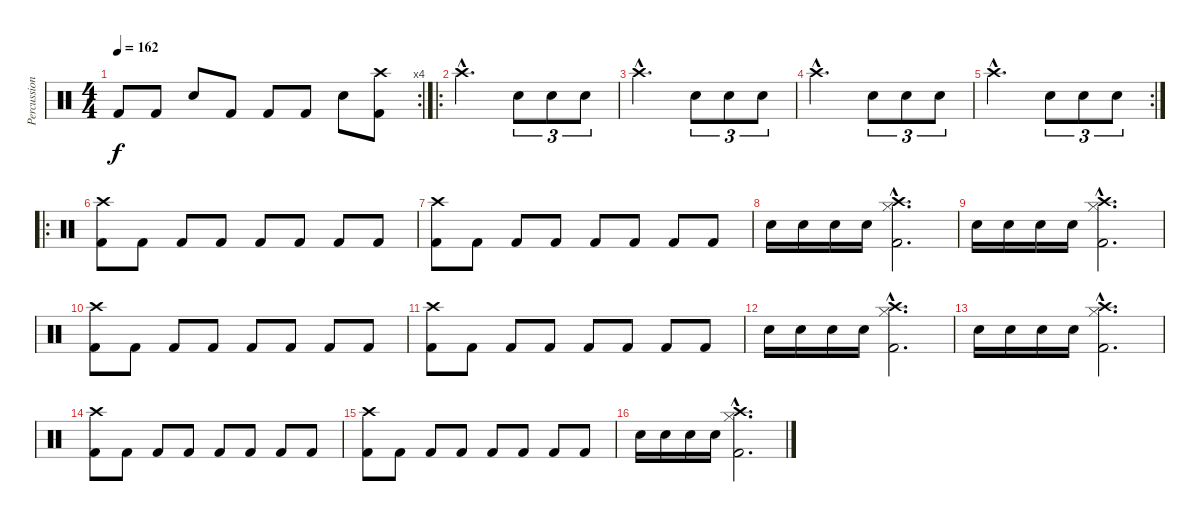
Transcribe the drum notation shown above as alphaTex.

\track ("Percussion" "Percussion") {instrument percussion}
\staff {score}
\articulation defaults
\rc 4
\ts (4 4)
\tempo 162
\clef neutral
\ks c "Kick (hit) 2".8{dy f} "Kick (hit) 2".8 "Snare (hit) 2".8 "Kick (hit) 2".8 "Kick (hit) 2".8 "Kick (hit) 2".8 "Snare (hit) 2".8
("Crash high (hit)" "Kick (hit) 2").8 |
\ro "Crash high (hit)"{hac}.2{d} "Snare (hit) 2".8{tu (3 2)} "Snare (hit) 2".8{tu (3 2)} "Snare (hit) 2".8{tu (3 2)}
|
"Crash high (hit)"{hac}.2{d} "Snare (hit) 2".8{tu (3 2)} "Snare (hit) 2".8{tu (3 2)} "Snare (hit) 2".8{tu (3 2)} |
"Crash high (hit)"{hac}.2{d} "Snare (hit) 2".8{tu (3 2)} "Snare (hit) 2".8{tu (3 2)} "Snare (hit) 2".8{tu (3 2)} |
\rc 2 "Crash high (hit)"{hac}.2{d} "Snare (hit) 2".8{tu (3 2)} "Snare (hit) 2".8{tu (3 2)} "Snare (hit) 2".8{tu (3 2)}
|
\ro
("Crash high (hit)" "Kick (hit) 2").8 "Kick (hit) 2".8 "Kick (hit) 2".8 "Kick (hit) 2".8 "Kick (hit) 2".8 "Kick (hit) 2".8 "Kick (hit) 2".8 "Kick (hit) 2".8 |
("Crash high (hit)" "Kick (hit) 2").8 "Kick (hit) 2".8 "Kick (hit) 2".8 "Kick (hit) 2".8 "Kick (hit) 2".8 "Kick (hit) 2".8 "Kick (hit) 2".8 "Kick (hit) 2".8 |
"Snare (hit) 2".16 "Snare (hit) 2".16 "Snare (hit) 2".16 "Snare (hit) 2".16 ("Hi-Hat (closed)"{hac} "Crash high (hit)"{hac} "Kick (hit) 2"{hac}).2{d} |
"Snare (hit) 2".16 "Snare (hit) 2".16 "Snare (hit) 2".16 "Snare (hit) 2".16 ("Hi-Hat (closed)"{hac} "Crash high (hit)"{hac} "Kick (hit) 2"{hac}).2{d} |
("Crash high (hit)" "Kick (hit) 2").8 "Kick (hit) 2".8 "Kick (hit) 2".8 "Kick (hit) 2".8 "Kick (hit) 2".8 "Kick (hit) 2".8 "Kick (hit) 2".8 "Kick (hit) 2".8 |
("Crash high (hit)" "Kick (hit) 2").8 "Kick (hit) 2".8 "Kick (hit) 2".8 "Kick (hit) 2".8 "Kick (hit) 2".8 "Kick (hit) 2".8 "Kick (hit) 2".8 "Kick (hit) 2".8 |
"Snare (hit) 2".16 "Snare (hit) 2".16 "Snare (hit) 2".16 "Snare (hit) 2".16 ("Hi-Hat (closed)"{hac} "Crash high (hit)"{hac} "Kick (hit) 2"{hac}).2{d} |
"Snare (hit) 2".16 "Snare (hit) 2".16 "Snare (hit) 2".16 "Snare (hit) 2".16 ("Hi-Hat (closed)"{hac} "Crash high (hit)"{hac} "Kick (hit) 2"{hac}).2{d} |
("Crash high (hit)" "Kick (hit) 2").8 "Kick (hit) 2".8 "Kick (hit) 2".8 "Kick (hit) 2".8 "Kick (hit) 2".8 "Kick (hit) 2".8 "Kick (hit) 2".8 "Kick (hit) 2".8 |
("Crash high (hit)" "Kick (hit) 2").8 "Kick (hit) 2".8 "Kick (hit) 2".8 "Kick (hit) 2".8 "Kick (hit) 2".8 "Kick (hit) 2".8 "Kick (hit) 2".8 "Kick (hit) 2".8 |
"Snare (hit) 2".16 "Snare (hit) 2".16 "Snare (hit) 2".16 "Snare (hit) 2".16 ("Hi-Hat (closed)"{hac} "Crash high (hit)"{hac} "Kick (hit) 2"{hac}).2{d}
